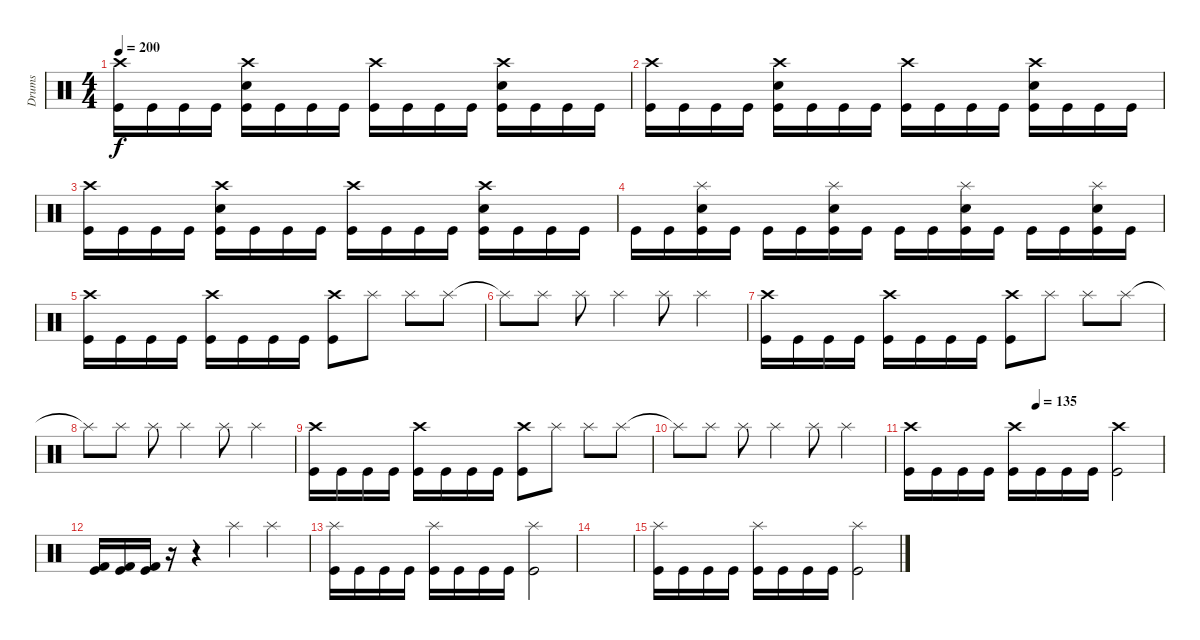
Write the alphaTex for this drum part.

\track ("Drums" "Drums") {instrument percussion}
\staff {score}
\articulation defaults
\ts (4 4)
\tempo 200
\clef neutral
\ks c
("Crash high (hit)" "Kick (hit)").16{dy f} "Kick (hit)".16 "Kick (hit)".16 "Kick (hit)".16 ("Crash high (hit)" "Snare (hit) 2" "Kick (hit)").16 "Kick (hit)".16 "Kick (hit)".16 "Kick (hit)".16 ("Crash high (hit)" "Kick (hit)").16 "Kick (hit)".16 "Kick (hit)".16 "Kick (hit)".16 ("Crash high (hit)" "Snare (hit) 2" "Kick (hit)").16 "Kick (hit)".16 "Kick (hit)".16 "Kick (hit)".16 |
("Crash high (hit)" "Kick (hit)").16 "Kick (hit)".16 "Kick (hit)".16 "Kick (hit)".16 ("Crash high (hit)" "Snare (hit) 2" "Kick (hit)").16 "Kick (hit)".16 "Kick (hit)".16 "Kick (hit)".16 ("Crash high (hit)" "Kick (hit)").16 "Kick (hit)".16 "Kick (hit)".16 "Kick (hit)".16 ("Crash high (hit)" "Snare (hit) 2" "Kick (hit)").16 "Kick (hit)".16 "Kick (hit)".16 "Kick (hit)".16 |
("Crash high (hit)" "Kick (hit)").16 "Kick (hit)".16 "Kick (hit)".16 "Kick (hit)".16 ("Crash high (hit)" "Snare (hit) 2" "Kick (hit)").16 "Kick (hit)".16 "Kick (hit)".16 "Kick (hit)".16 ("Crash high (hit)" "Kick (hit)").16 "Kick (hit)".16 "Kick (hit)".16 "Kick (hit)".16 ("Crash high (hit)" "Snare (hit) 2" "Kick (hit)").16 "Kick (hit)".16 "Kick (hit)".16 "Kick (hit)".16 |
"Kick (hit)".16 "Kick (hit)".16 ("Splash (hit)" "Snare (hit) 2" "Kick (hit)").16 "Kick (hit)".16 "Kick (hit)".16 "Kick (hit)".16 ("Splash (hit)" "Snare (hit) 2" "Kick (hit)").16 "Kick (hit)".16 "Kick (hit)".16 "Kick (hit)".16 ("Splash (hit)" "Snare (hit) 2" "Kick (hit)").16 "Kick (hit)".16 "Kick (hit)".16 "Kick (hit)".16 ("Splash (hit)" "Snare (hit) 2" "Kick (hit)").16 "Kick (hit)".16 |
("Crash high (hit)" "Kick (hit)").16 "Kick (hit)".16 "Kick (hit)".16 "Kick (hit)".16 ("Crash high (hit)" "Kick (hit)").16 "Kick (hit)".16 "Kick (hit)".16 "Kick (hit)".16 ("Crash high (hit)" "Kick (hit)").8 "Splash (hit)".8 "Splash (hit)".8 "Splash (hit)".8 |
"Splash (hit)"{t}.8 "Splash (hit)".8 "Splash (hit)".8 "Splash (hit)".4 "Splash (hit)".8 "Splash (hit)".4 |
("Crash high (hit)" "Kick (hit)").16 "Kick (hit)".16 "Kick (hit)".16 "Kick (hit)".16 ("Crash high (hit)" "Kick (hit)").16 "Kick (hit)".16 "Kick (hit)".16 "Kick (hit)".16 ("Crash high (hit)" "Kick (hit)").8 "Splash (hit)".8 "Splash (hit)".8 "Splash (hit)".8 |
"Splash (hit)"{t}.8 "Splash (hit)".8 "Splash (hit)".8 "Splash (hit)".4 "Splash (hit)".8 "Splash (hit)".4 |
("Crash high (hit)" "Kick (hit)").16 "Kick (hit)".16 "Kick (hit)".16 "Kick (hit)".16 ("Crash high (hit)" "Kick (hit)").16 "Kick (hit)".16 "Kick (hit)".16 "Kick (hit)".16 ("Crash high (hit)" "Kick (hit)").8 "Splash (hit)".8 "Splash (hit)".8 "Splash (hit)".8 |
"Splash (hit)"{t}.8 "Splash (hit)".8 "Splash (hit)".8 "Splash (hit)".4 "Splash (hit)".8 "Splash (hit)".4 |
\tempo (135 0.5)
("Crash high (hit)" "Kick (hit)").16 "Kick (hit)".16 "Kick (hit)".16 "Kick (hit)".16 ("Crash high (hit)" "Kick (hit)").16 "Kick (hit)".16 "Kick (hit)".16 "Kick (hit)".16 ("Crash high (hit)" "Kick (hit)").2 |
("Kick (hit) 2" "Kick (hit)").16 ("Kick (hit) 2" "Kick (hit)").16 ("Kick (hit) 2" "Kick (hit)").16 r.16 r.4 "Splash (hit)".4 "Splash (hit)".4 |
("Splash (hit)" "Kick (hit)").16 "Kick (hit)".16 "Kick (hit)".16 "Kick (hit)".16 ("Splash (hit)" "Kick (hit)").16 "Kick (hit)".16 "Kick (hit)".16 "Kick (hit)".16 ("Splash (hit)" "Kick (hit)").2 |
|
("Splash (hit)" "Kick (hit)").16 "Kick (hit)".16 "Kick (hit)".16 "Kick (hit)".16 ("Splash (hit)" "Kick (hit)").16 "Kick (hit)".16 "Kick (hit)".16 "Kick (hit)".16 ("Splash (hit)" "Kick (hit)").2
